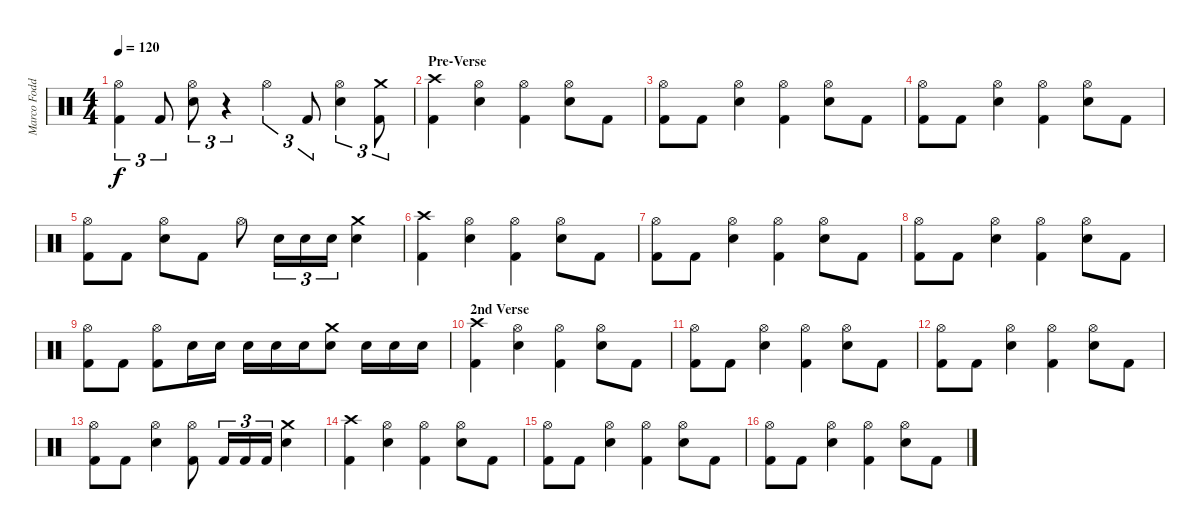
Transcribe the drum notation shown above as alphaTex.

\track ("Marco Foddis " "Marco Fodd") {instrument percussion}
\staff {score}
\articulation defaults
\ts (4 4)
\tempo 120
\clef neutral
\ks c
("Hi-Hat (open)" "Kick (hit) 2").4{tu (3 2) dy f} "Kick (hit) 2".8{tu (3 2)} ("Hi-Hat (open)" "Electric Snare (hit)").8{tu (3 2)} r.4{tu (3 2)} "Hi-Hat (open)".4{tu (3 2)} "Kick (hit) 2".8{tu (3 2)} ("Hi-Hat (open)" "Electric Snare (hit)").4{tu (3 2)} ("Crash medium (hit)" "Kick (hit) 2").8{tu (3 2)} |
\section ("" "Pre-Verse")
("Crash high (hit)" "Kick (hit) 2").4 ("Hi-Hat (open)" "Electric Snare (hit)").4 ("Hi-Hat (open)" "Kick (hit) 2").4 ("Hi-Hat (open)" "Electric Snare (hit)").8 "Kick (hit) 2".8 |
("Hi-Hat (open)" "Kick (hit) 2").8 "Kick (hit) 2".8 ("Hi-Hat (open)" "Electric Snare (hit)").4 ("Hi-Hat (open)" "Kick (hit) 2").4 ("Hi-Hat (open)" "Electric Snare (hit)").8 "Kick (hit) 2".8 |
("Hi-Hat (open)" "Kick (hit) 2").8 "Kick (hit) 2".8 ("Hi-Hat (open)" "Electric Snare (hit)").4 ("Hi-Hat (open)" "Kick (hit) 2").4 ("Hi-Hat (open)" "Electric Snare (hit)").8 "Kick (hit) 2".8 |
("Hi-Hat (open)" "Kick (hit) 2").8 "Kick (hit) 2".8 ("Hi-Hat (open)" "Electric Snare (hit)").8 "Kick (hit) 2".8 "Hi-Hat (open)".8 "Electric Snare (hit)".16{tu (3 2)} "Electric Snare (hit)".16{tu (3 2)} "Electric Snare (hit)".16{tu (3 2)} ("Crash medium (hit)" "Electric Snare (hit)").4 |
("Crash high (hit)" "Kick (hit) 2").4 ("Hi-Hat (open)" "Electric Snare (hit)").4 ("Hi-Hat (open)" "Kick (hit) 2").4 ("Hi-Hat (open)" "Electric Snare (hit)").8 "Kick (hit) 2".8 |
("Hi-Hat (open)" "Kick (hit) 2").8 "Kick (hit) 2".8 ("Hi-Hat (open)" "Electric Snare (hit)").4 ("Hi-Hat (open)" "Kick (hit) 2").4 ("Hi-Hat (open)" "Electric Snare (hit)").8 "Kick (hit) 2".8 |
("Hi-Hat (open)" "Kick (hit) 2").8 "Kick (hit) 2".8 ("Hi-Hat (open)" "Electric Snare (hit)").4 ("Hi-Hat (open)" "Kick (hit) 2").4 ("Hi-Hat (open)" "Electric Snare (hit)").8 "Kick (hit) 2".8 |
("Hi-Hat (open)" "Kick (hit) 2").8 "Kick (hit) 2".8 ("Hi-Hat (open)" "Kick (hit) 2").8 "Electric Snare (hit)".16 "Electric Snare (hit)".16 "Electric Snare (hit)".16 "Electric Snare (hit)".16 "Electric Snare (hit)".16 ("Crash medium (hit)" "Electric Snare (hit)").8 "Electric Snare (hit)".16 "Electric Snare (hit)".16 "Electric Snare (hit)".16 |
\section ("" "2nd Verse")
("Crash high (hit)" "Kick (hit) 2").4 ("Hi-Hat (open)" "Electric Snare (hit)").4 ("Hi-Hat (open)" "Kick (hit) 2").4 ("Hi-Hat (open)" "Electric Snare (hit)").8 "Kick (hit) 2".8 |
("Hi-Hat (open)" "Kick (hit) 2").8 "Kick (hit) 2".8 ("Hi-Hat (open)" "Electric Snare (hit)").4 ("Hi-Hat (open)" "Kick (hit) 2").4 ("Hi-Hat (open)" "Electric Snare (hit)").8 "Kick (hit) 2".8 |
("Hi-Hat (open)" "Kick (hit) 2").8 "Kick (hit) 2".8 ("Hi-Hat (open)" "Electric Snare (hit)").4 ("Hi-Hat (open)" "Kick (hit) 2").4 ("Hi-Hat (open)" "Electric Snare (hit)").8 "Kick (hit) 2".8 |
("Hi-Hat (open)" "Kick (hit) 2").8 "Kick (hit) 2".8 ("Hi-Hat (open)" "Electric Snare (hit)").4 ("Hi-Hat (open)" "Kick (hit) 2").8 "Kick (hit) 2".16{tu (3 2)} "Kick (hit) 2".16{tu (3 2)} "Kick (hit) 2".16{tu (3 2)} ("Crash medium (hit)" "Electric Snare (hit)").4 |
("Crash high (hit)" "Kick (hit) 2").4 ("Hi-Hat (open)" "Electric Snare (hit)").4 ("Hi-Hat (open)" "Kick (hit) 2").4 ("Hi-Hat (open)" "Electric Snare (hit)").8 "Kick (hit) 2".8 |
("Hi-Hat (open)" "Kick (hit) 2").8 "Kick (hit) 2".8 ("Hi-Hat (open)" "Electric Snare (hit)").4 ("Hi-Hat (open)" "Kick (hit) 2").4 ("Hi-Hat (open)" "Electric Snare (hit)").8 "Kick (hit) 2".8 |
("Hi-Hat (open)" "Kick (hit) 2").8 "Kick (hit) 2".8 ("Hi-Hat (open)" "Electric Snare (hit)").4 ("Hi-Hat (open)" "Kick (hit) 2").4 ("Hi-Hat (open)" "Electric Snare (hit)").8 "Kick (hit) 2".8
